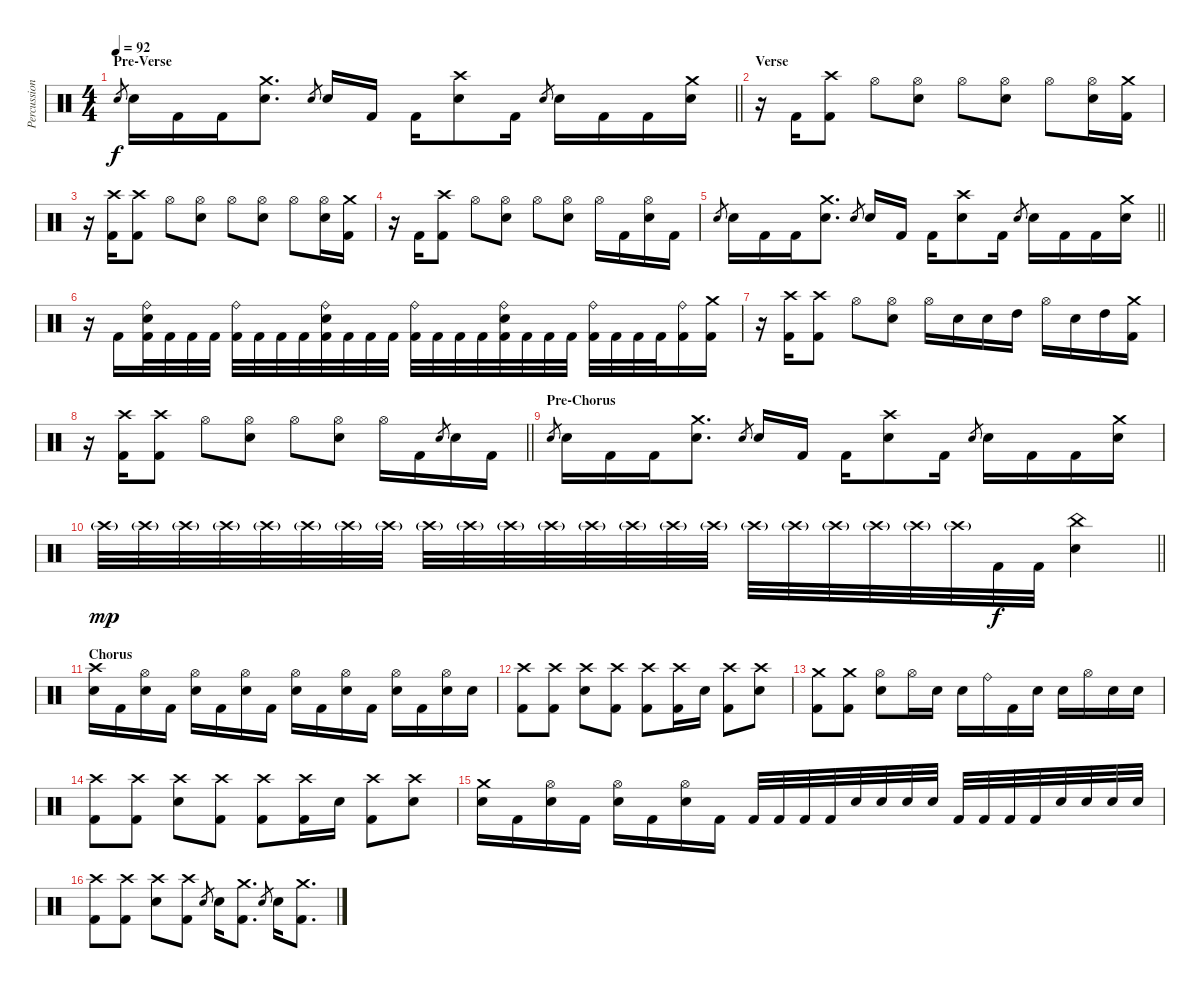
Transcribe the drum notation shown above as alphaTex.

\track ("Percussion" "Percussion") {instrument percussion}
\staff {score}
\articulation defaults
\ts (4 4)
\section ("" "Pre-Verse")
\tempo 92
\clef neutral
\barLineRight lightlight
\ks c "Electric Snare (hit)".8{gr dy f} "Electric Snare (hit)".16 "Kick (hit) 2".16 "Kick (hit) 2".16
("Crash medium (hit)" "Electric Snare (hit)").8{d} "Electric Snare (hit)".8{gr} "Electric Snare (hit)".16 "Kick (hit) 2".16 "Kick (hit) 2".16 ("Crash high (hit)" "Electric Snare (hit)").8 "Kick (hit) 2".16 "Electric Snare (hit)".8{gr} "Electric Snare (hit)".16 "Kick (hit) 2".16 "Kick (hit) 2".16 ("Crash medium (hit)" "Electric Snare (hit)").16 |
\section ("" "Verse")
r.16 "Kick (hit) 2".16 ("Crash high (hit)" "Kick (hit) 2").8 "Hi-Hat (open)".8 ("Hi-Hat (open)" "Electric Snare (hit)").8 "Hi-Hat (open)".8 ("Hi-Hat (open)" "Electric Snare (hit)").8 "Hi-Hat (open)".8 ("Hi-Hat (open)" "Electric Snare (hit)").16 ("Crash medium (hit)" "Kick (hit) 2").16 |
r.16 ("Crash high (hit)" "Kick (hit) 2").16 ("Crash high (hit)" "Kick (hit) 2").8 "Hi-Hat (open)".8 ("Hi-Hat (open)" "Electric Snare (hit)").8 "Hi-Hat (open)".8 ("Hi-Hat (open)" "Electric Snare (hit)").8 "Hi-Hat (open)".8 ("Hi-Hat (open)" "Electric Snare (hit)").16 ("Crash medium (hit)" "Kick (hit) 2").16 |
r.16 "Kick (hit) 2".16 ("Crash high (hit)" "Kick (hit) 2").8 "Hi-Hat (open)".8 ("Hi-Hat (open)" "Electric Snare (hit)").8 "Hi-Hat (open)".8 ("Hi-Hat (open)" "Electric Snare (hit)").8 "Hi-Hat (open)".16 "Kick (hit) 2".16 ("Hi-Hat (open)" "Electric Snare (hit)").16 "Kick (hit) 2".16 |
\barLineRight lightlight "Electric Snare (hit)".8{gr} "Electric Snare (hit)".16 "Kick (hit) 2".16 "Kick (hit) 2".16
("Crash medium (hit)" "Electric Snare (hit)").8{d} "Electric Snare (hit)".8{gr} "Electric Snare (hit)".16 "Kick (hit) 2".16 "Kick (hit) 2".16 ("Crash high (hit)" "Electric Snare (hit)").8 "Kick (hit) 2".16 "Electric Snare (hit)".8{gr} "Electric Snare (hit)".16 "Kick (hit) 2".16 "Kick (hit) 2".16 ("Crash medium (hit)" "Electric Snare (hit)").16 |
r.16 "Kick (hit) 2".16 ("Ride (bell)" "Electric Snare (hit)" "Kick (hit) 2").32 "Kick (hit) 2".32 "Kick (hit) 2".32 "Kick (hit) 2".32 ("Ride (bell)" "Kick (hit) 2").32 "Kick (hit) 2".32 "Kick (hit) 2".32 "Kick (hit) 2".32 ("Ride (bell)" "Electric Snare (hit)" "Kick (hit) 2").32 "Kick (hit) 2".32 "Kick (hit) 2".32 "Kick (hit) 2".32 ("Ride (bell)" "Kick (hit) 2").32 "Kick (hit) 2".32 "Kick (hit) 2".32 "Kick (hit) 2".32 ("Ride (bell)" "Electric Snare (hit)" "Kick (hit) 2").32 "Kick (hit) 2".32 "Kick (hit) 2".32 "Kick (hit) 2".32 ("Ride (bell)" "Kick (hit) 2").32 "Kick (hit) 2".32 "Kick (hit) 2".32 "Kick (hit) 2".32 ("Ride (bell)" "Kick (hit) 2").16 ("Crash medium (hit)" "Kick (hit) 2").16 |
r.16 ("Crash high (hit)" "Kick (hit) 2").16 ("Crash high (hit)" "Kick (hit) 2").8 "Hi-Hat (open)".8 ("Hi-Hat (open)" "Electric Snare (hit)").8 "Hi-Hat (open)".16 "Electric Snare (hit)".16 "Electric Snare (hit)".16 "High Tom (hit)".16 "Hi-Hat (open)".16 "Electric Snare (hit)".16 "High Tom (hit)".16 ("Crash medium (hit)" "Kick (hit) 2").16 |
\barLineRight lightlight
r.16 ("Crash high (hit)" "Kick (hit) 2").16 ("Crash high (hit)" "Kick (hit) 2").8 "Hi-Hat (open)".8 ("Hi-Hat (open)" "Electric Snare (hit)").8 "Hi-Hat (open)".8 ("Hi-Hat (open)" "Electric Snare (hit)").8 "Hi-Hat (open)".16 "Kick (hit) 2".16 "Electric Snare (hit)".8{gr} "Electric Snare (hit)".16 "Kick (hit) 2".16 |
\section ("" "Pre-Chorus")
"Electric Snare (hit)".8{gr} "Electric Snare (hit)".16 "Kick (hit) 2".16 "Kick (hit) 2".16 ("Crash medium (hit)" "Electric Snare (hit)").8{d} "Electric Snare (hit)".8{gr} "Electric Snare (hit)".16 "Kick (hit) 2".16 "Kick (hit) 2".16 ("Crash high (hit)" "Electric Snare (hit)").8 "Kick (hit) 2".16 "Electric Snare (hit)".8{gr} "Electric Snare (hit)".16 "Kick (hit) 2".16 "Kick (hit) 2".16 ("Crash medium (hit)" "Electric Snare (hit)").16 |
\barLineRight lightlight "Crash high (hit)"{g}.32{dy mp} "Crash high (hit)"{g}.32 "Crash high (hit)"{g}.32 "Crash high (hit)"{g}.32 "Crash high (hit)"{g}.32 "Crash high (hit)"{g}.32 "Crash high (hit)"{g}.32 "Crash high (hit)"{g}.32 "Crash high (hit)"{g}.32 "Crash high (hit)"{g}.32 "Crash high (hit)"{g}.32 "Crash high (hit)"{g}.32 "Crash high (hit)"{g}.32 "Crash high (hit)"{g}.32 "Crash high (hit)"{g}.32 "Crash high (hit)"{g}.32 "Crash high (hit)"{g}.32 "Crash high (hit)"{g}.32 "Crash high (hit)"{g}.32 "Crash high (hit)"{g}.32 "Crash high (hit)"{g}.32 "Crash high (hit)"{g}.32 "Kick (hit) 2".32{dy f} "Kick (hit) 2".32
("China (hit)" "Electric Snare (hit)").4 |
\section ("" "Chorus")
("Crash high (hit)" "Electric Snare (hit)").16 "Kick (hit) 2".16 ("Hi-Hat (open)" "Electric Snare (hit)").16 "Kick (hit) 2".16 ("Hi-Hat (open)" "Electric Snare (hit)").16 "Kick (hit) 2".16 ("Hi-Hat (open)" "Electric Snare (hit)").16 "Kick (hit) 2".16 ("Hi-Hat (open)" "Electric Snare (hit)").16 "Kick (hit) 2".16 ("Hi-Hat (open)" "Electric Snare (hit)").16 "Kick (hit) 2".16 ("Hi-Hat (open)" "Electric Snare (hit)").16 "Kick (hit) 2".16 ("Hi-Hat (open)" "Electric Snare (hit)").16 "Electric Snare (hit)".16 |
("Crash high (hit)" "Kick (hit) 2").8 ("Crash high (hit)" "Kick (hit) 2").8 ("Crash high (hit)" "Electric Snare (hit)").8 ("Crash high (hit)" "Kick (hit) 2").8 ("Crash high (hit)" "Kick (hit) 2").8 ("Crash high (hit)" "Kick (hit) 2").16 "Electric Snare (hit)".16 ("Crash high (hit)" "Kick (hit) 2").8 ("Crash high (hit)" "Electric Snare (hit)").8 |
("Crash medium (hit)" "Kick (hit) 2").8 ("Crash medium (hit)" "Kick (hit) 2").8 ("Hi-Hat (open)" "Electric Snare (hit)").8 "Hi-Hat (open)".16 "Electric Snare (hit)".16 "Electric Snare (hit)".16 "Ride (bell)".16 "Kick (hit) 2".16 "Electric Snare (hit)".16 "Electric Snare (hit)".16 "Hi-Hat (open)".16 "Electric Snare (hit)".16 "Electric Snare (hit)".16 |
("Crash high (hit)" "Kick (hit) 2").8 ("Crash high (hit)" "Kick (hit) 2").8 ("Crash high (hit)" "Electric Snare (hit)").8 ("Crash high (hit)" "Kick (hit) 2").8 ("Crash high (hit)" "Kick (hit) 2").8 ("Crash high (hit)" "Kick (hit) 2").16 "Electric Snare (hit)".16 ("Crash high (hit)" "Kick (hit) 2").8 ("Crash high (hit)" "Electric Snare (hit)").8 |
("Crash medium (hit)" "Electric Snare (hit)").16 "Kick (hit) 2".16 ("Hi-Hat (open)" "Electric Snare (hit)").16 "Kick (hit) 2".16 ("Hi-Hat (open)" "Electric Snare (hit)").16 "Kick (hit) 2".16 ("Hi-Hat (open)" "Electric Snare (hit)").16 "Kick (hit) 2".16 "Kick (hit) 2".32 "Kick (hit) 2".32 "Kick (hit) 2".32 "Kick (hit) 2".32 "Electric Snare (hit)".32 "Electric Snare (hit)".32 "Electric Snare (hit)".32 "Electric Snare (hit)".32 "Kick (hit) 2".32 "Kick (hit) 2".32 "Kick (hit) 2".32 "Kick (hit) 2".32 "Electric Snare (hit)".32 "Electric Snare (hit)".32 "Electric Snare (hit)".32 "Electric Snare (hit)".32 |
("Crash high (hit)" "Kick (hit) 2").8 ("Crash high (hit)" "Kick (hit) 2").8 ("Crash high (hit)" "Electric Snare (hit)").8 ("Crash high (hit)" "Kick (hit) 2").8 "Electric Snare (hit)".8{gr} "Electric Snare (hit)".16 ("Crash medium (hit)" "Kick (hit) 2").8{d} "Electric Snare (hit)".8{gr} "Electric Snare (hit)".16 ("Crash medium (hit)" "Kick (hit) 2").8{d}
